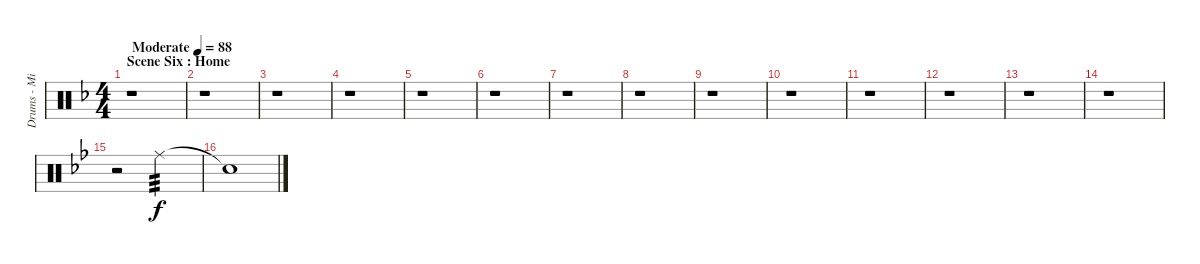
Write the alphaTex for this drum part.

\track ("Drums - Mike Portnoy" "Drums - Mi") {instrument percussion}
\staff {score}
\articulation defaults
\ts (4 4)
\section ("" "Scene Six : Home")
\tempo (88 "Moderate")
\clef neutral
\ks dminor
r.1{dy f} |
r.1 |
r.1 |
r.1 |
r.1 |
r.1 |
r.1 |
r.1 |
r.1 |
r.1 |
r.1 |
r.1 |
r.1 |
r.1 |
\ks bb
r.2{volume 0} "Ride (middle)".2{tp 3 volume 13} |
"Snare (hit)"{t}.1{volume 0}
